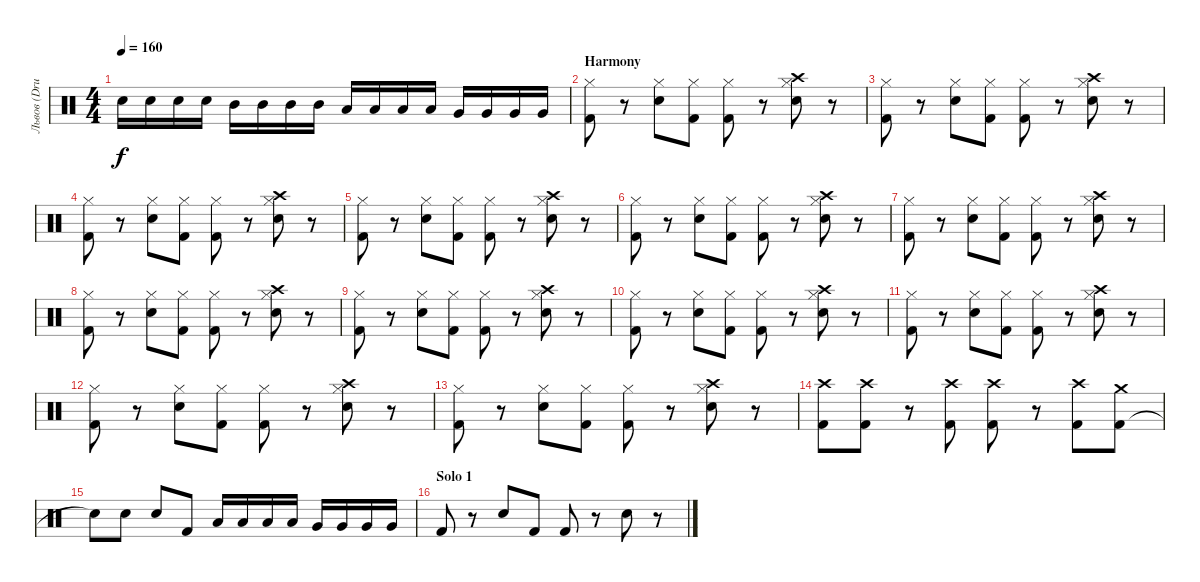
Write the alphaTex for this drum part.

\track ("Львов (Drums)" "Львов (Dru") {instrument percussion}
\staff {score}
\articulation defaults
\ts (4 4)
\tempo 160
\clef neutral
\ks c "Electric Snare (hit)".16{dy f} "Electric Snare (hit)".16 "Electric Snare (hit)".16 "Electric Snare (hit)".16 "Mid Tom (hit)".16 "Mid Tom (hit)".16 "Mid Tom (hit)".16 "Mid Tom (hit)".16 "Low Tom (hit)".16 "Low Tom (hit)".16 "Low Tom (hit)".16 "Low Tom (hit)".16 "Very Low Tom (hit)".16 "Very Low Tom (hit)".16 "Very Low Tom (hit)".16 "Very Low Tom (hit)".16
|
\section ("" "Harmony")
("Kick (hit) 2" "Hi-Hat (closed)").8 r.8 ("Electric Snare (hit)" "Hi-Hat (closed)").8 ("Kick (hit) 2" "Hi-Hat (closed)").8 ("Kick (hit) 2" "Hi-Hat (closed)").8 r.8 ("Electric Snare (hit)" "Crash high (hit)" "Hi-Hat (closed)").8 r.8 |
("Kick (hit) 2" "Hi-Hat (closed)").8 r.8 ("Electric Snare (hit)" "Hi-Hat (closed)").8 ("Kick (hit) 2" "Hi-Hat (closed)").8 ("Kick (hit) 2" "Hi-Hat (closed)").8 r.8 ("Electric Snare (hit)" "Crash high (hit)" "Hi-Hat (closed)").8 r.8 |
("Kick (hit) 2" "Hi-Hat (closed)").8 r.8 ("Electric Snare (hit)" "Hi-Hat (closed)").8 ("Kick (hit) 2" "Hi-Hat (closed)").8 ("Kick (hit) 2" "Hi-Hat (closed)").8 r.8 ("Electric Snare (hit)" "Crash high (hit)" "Hi-Hat (closed)").8 r.8 |
("Kick (hit) 2" "Hi-Hat (closed)").8 r.8 ("Electric Snare (hit)" "Hi-Hat (closed)").8 ("Kick (hit) 2" "Hi-Hat (closed)").8 ("Kick (hit) 2" "Hi-Hat (closed)").8 r.8 ("Electric Snare (hit)" "Crash high (hit)" "Hi-Hat (closed)").8 r.8 |
("Kick (hit) 2" "Hi-Hat (closed)").8 r.8 ("Electric Snare (hit)" "Hi-Hat (closed)").8 ("Kick (hit) 2" "Hi-Hat (closed)").8 ("Kick (hit) 2" "Hi-Hat (closed)").8 r.8 ("Electric Snare (hit)" "Crash high (hit)" "Hi-Hat (closed)").8 r.8 |
("Kick (hit) 2" "Hi-Hat (closed)").8 r.8 ("Electric Snare (hit)" "Hi-Hat (closed)").8 ("Kick (hit) 2" "Hi-Hat (closed)").8 ("Kick (hit) 2" "Hi-Hat (closed)").8 r.8 ("Electric Snare (hit)" "Crash high (hit)" "Hi-Hat (closed)").8 r.8 |
("Kick (hit) 2" "Hi-Hat (closed)").8 r.8 ("Electric Snare (hit)" "Hi-Hat (closed)").8 ("Kick (hit) 2" "Hi-Hat (closed)").8 ("Kick (hit) 2" "Hi-Hat (closed)").8 r.8 ("Electric Snare (hit)" "Crash high (hit)" "Hi-Hat (closed)").8 r.8 |
("Kick (hit) 2" "Hi-Hat (closed)").8 r.8 ("Electric Snare (hit)" "Hi-Hat (closed)").8 ("Kick (hit) 2" "Hi-Hat (closed)").8 ("Kick (hit) 2" "Hi-Hat (closed)").8 r.8 ("Electric Snare (hit)" "Crash high (hit)" "Hi-Hat (closed)").8 r.8 |
("Kick (hit) 2" "Hi-Hat (closed)").8 r.8 ("Electric Snare (hit)" "Hi-Hat (closed)").8 ("Kick (hit) 2" "Hi-Hat (closed)").8 ("Kick (hit) 2" "Hi-Hat (closed)").8 r.8 ("Electric Snare (hit)" "Crash high (hit)" "Hi-Hat (closed)").8 r.8 |
("Kick (hit) 2" "Hi-Hat (closed)").8 r.8 ("Electric Snare (hit)" "Hi-Hat (closed)").8 ("Kick (hit) 2" "Hi-Hat (closed)").8 ("Kick (hit) 2" "Hi-Hat (closed)").8 r.8 ("Electric Snare (hit)" "Crash high (hit)" "Hi-Hat (closed)").8 r.8 |
("Kick (hit) 2" "Hi-Hat (closed)").8 r.8 ("Electric Snare (hit)" "Hi-Hat (closed)").8 ("Kick (hit) 2" "Hi-Hat (closed)").8 ("Kick (hit) 2" "Hi-Hat (closed)").8 r.8 ("Electric Snare (hit)" "Crash high (hit)" "Hi-Hat (closed)").8 r.8 |
("Kick (hit) 2" "Hi-Hat (closed)").8 r.8 ("Electric Snare (hit)" "Hi-Hat (closed)").8 ("Kick (hit) 2" "Hi-Hat (closed)").8 ("Kick (hit) 2" "Hi-Hat (closed)").8 r.8 ("Electric Snare (hit)" "Crash high (hit)" "Hi-Hat (closed)").8 r.8 |
("Kick (hit) 2" "Crash high (hit)").8 ("Kick (hit) 2" "Crash high (hit)").8 r.8 ("Kick (hit) 2" "Crash high (hit)").8 ("Kick (hit) 2" "Crash high (hit)").8 r.8 ("Kick (hit) 2" "Crash high (hit)").8 ("Kick (hit) 2" "Crash medium (hit)").8 |
"Snare (hit)"{t}.8 "Electric Snare (hit)".8 "Electric Snare (hit)".8 "Kick (hit) 2".8 "Low Tom (hit)".16 "Low Tom (hit)".16 "Low Tom (hit)".16 "Low Tom (hit)".16 "Very Low Tom (hit)".16 "Very Low Tom (hit)".16 "Very Low Tom (hit)".16 "Very Low Tom (hit)".16 |
\section ("" "Solo 1")
"Kick (hit) 2".8 r.8 "Electric Snare (hit)".8 "Kick (hit) 2".8 "Kick (hit) 2".8 r.8 "Electric Snare (hit)".8 r.8
